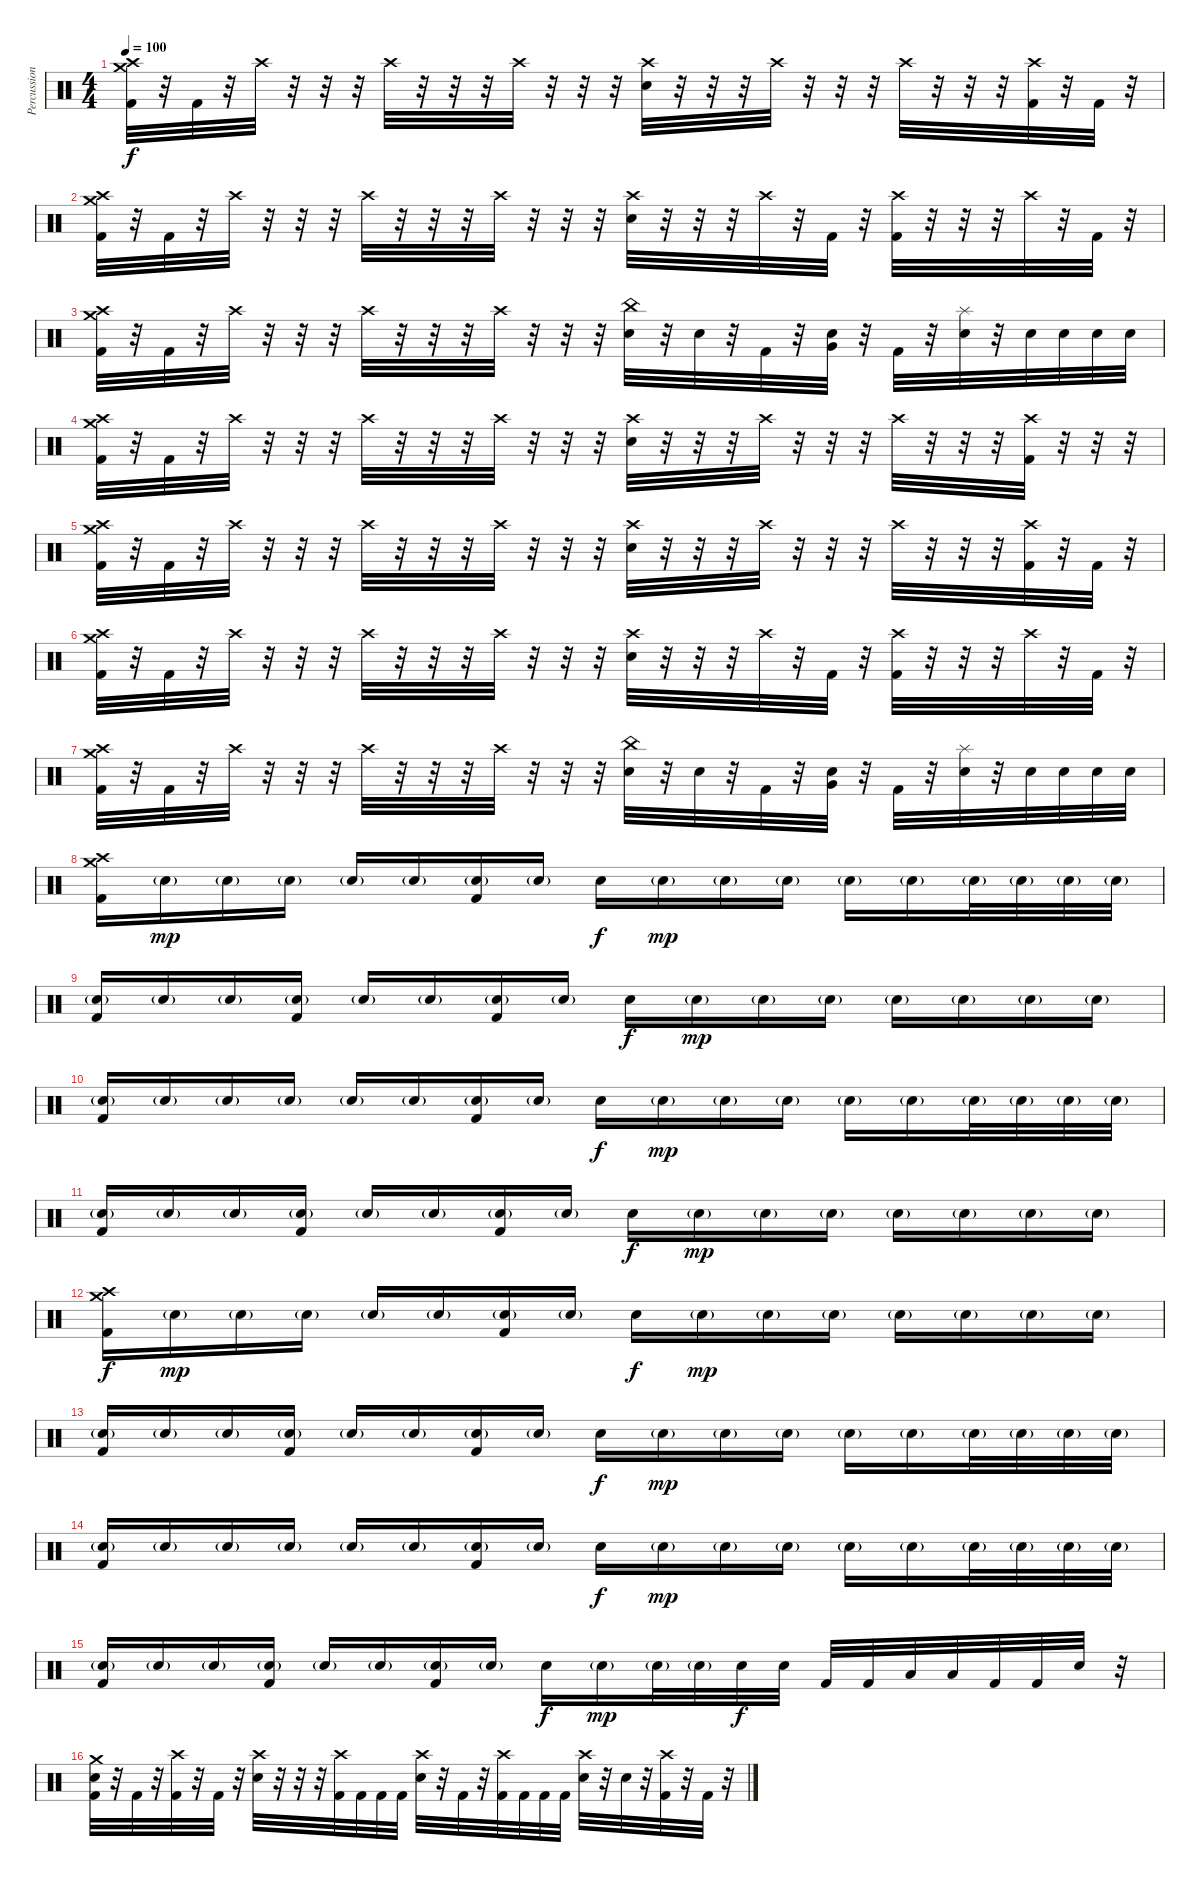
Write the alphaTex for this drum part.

\track ("Percussion" "Percussion") {instrument percussion}
\staff {score}
\articulation defaults
\ts (4 4)
\tempo 100
\clef neutral
\ks c
("Crash high (hit)" "Crash medium (hit)" "Kick (hit) 2").32{dy f} r.32 "Kick (hit) 2".32 r.32 "Crash high (hit)".32 r.32 r.32 r.32 "Crash high (hit)".32 r.32 r.32 r.32 "Crash high (hit)".32 r.32 r.32 r.32 ("Crash high (hit)" "Electric Snare (hit)").32 r.32 r.32 r.32 "Crash high (hit)".32 r.32 r.32 r.32 "Crash high (hit)".32 r.32 r.32 r.32 ("Crash high (hit)" "Kick (hit) 2").32 r.32 "Kick (hit) 2".32 r.32 |
("Crash high (hit)" "Crash medium (hit)" "Kick (hit) 2").32 r.32 "Kick (hit) 2".32 r.32 "Crash high (hit)".32 r.32 r.32 r.32 "Crash high (hit)".32 r.32 r.32 r.32 "Crash high (hit)".32 r.32 r.32 r.32 ("Crash high (hit)" "Electric Snare (hit)").32 r.32 r.32 r.32 "Crash high (hit)".32 r.32 "Kick (hit) 2".32 r.32 ("Crash high (hit)" "Kick (hit) 2").32 r.32 r.32 r.32 "Crash high (hit)".32 r.32 "Kick (hit) 2".32 r.32 |
("Crash high (hit)" "Crash medium (hit)" "Kick (hit) 2").32 r.32 "Kick (hit) 2".32 r.32 "Crash high (hit)".32 r.32 r.32 r.32 "Crash high (hit)".32 r.32 r.32 r.32 "Crash high (hit)".32 r.32 r.32 r.32 ("China (hit)" "Electric Snare (hit)").32 r.32 "Electric Snare (hit)".32 r.32 "Kick (hit) 2".32 r.32 ("Very Low Tom (hit)" "Electric Snare (hit)").32 r.32 "Kick (hit) 2".32 r.32 ("Splash (hit)" "Electric Snare (hit)").32 r.32 "Electric Snare (hit)".32 "Electric Snare (hit)".32 "Electric Snare (hit)".32 "Electric Snare (hit)".32 |
("Crash high (hit)" "Crash medium (hit)" "Kick (hit) 2").32 r.32 "Kick (hit) 2".32 r.32 "Crash high (hit)".32 r.32 r.32 r.32 "Crash high (hit)".32 r.32 r.32 r.32 "Crash high (hit)".32 r.32 r.32 r.32 ("Crash high (hit)" "Electric Snare (hit)").32 r.32 r.32 r.32 "Crash high (hit)".32 r.32 r.32 r.32 "Crash high (hit)".32 r.32 r.32 r.32 ("Crash high (hit)" "Kick (hit) 2").32 r.32 r.32 r.32 |
("Crash high (hit)" "Crash medium (hit)" "Kick (hit) 2").32 r.32 "Kick (hit) 2".32 r.32 "Crash high (hit)".32 r.32 r.32 r.32 "Crash high (hit)".32 r.32 r.32 r.32 "Crash high (hit)".32 r.32 r.32 r.32 ("Crash high (hit)" "Electric Snare (hit)").32 r.32 r.32 r.32 "Crash high (hit)".32 r.32 r.32 r.32 "Crash high (hit)".32 r.32 r.32 r.32 ("Crash high (hit)" "Kick (hit) 2").32 r.32 "Kick (hit) 2".32 r.32 |
("Crash high (hit)" "Crash medium (hit)" "Kick (hit) 2").32 r.32 "Kick (hit) 2".32 r.32 "Crash high (hit)".32 r.32 r.32 r.32 "Crash high (hit)".32 r.32 r.32 r.32 "Crash high (hit)".32 r.32 r.32 r.32 ("Crash high (hit)" "Electric Snare (hit)").32 r.32 r.32 r.32 "Crash high (hit)".32 r.32 "Kick (hit) 2".32 r.32 ("Crash high (hit)" "Kick (hit) 2").32 r.32 r.32 r.32 "Crash high (hit)".32 r.32 "Kick (hit) 2".32 r.32 |
("Crash high (hit)" "Crash medium (hit)" "Kick (hit) 2").32 r.32 "Kick (hit) 2".32 r.32 "Crash high (hit)".32 r.32 r.32 r.32 "Crash high (hit)".32 r.32 r.32 r.32 "Crash high (hit)".32 r.32 r.32 r.32 ("China (hit)" "Electric Snare (hit)").32 r.32 "Electric Snare (hit)".32 r.32 "Kick (hit) 2".32 r.32 ("Very Low Tom (hit)" "Electric Snare (hit)").32 r.32 "Kick (hit) 2".32 r.32 ("Splash (hit)" "Electric Snare (hit)").32 r.32 "Electric Snare (hit)".32 "Electric Snare (hit)".32 "Electric Snare (hit)".32 "Electric Snare (hit)".32 |
("Crash high (hit)" "Crash medium (hit)" "Kick (hit) 2").16 "Electric Snare (hit)"{g}.16{dy mp} "Electric Snare (hit)"{g}.16 "Electric Snare (hit)"{g}.16 "Electric Snare (hit)"{g}.16 "Electric Snare (hit)"{g}.16 ("Electric Snare (hit)"{g} "Kick (hit) 2").16 "Electric Snare (hit)"{g}.16 "Electric Snare (hit)".16{dy f} "Electric Snare (hit)"{g}.16{dy mp} "Electric Snare (hit)"{g}.16 "Electric Snare (hit)"{g}.16 "Electric Snare (hit)"{g}.16 "Electric Snare (hit)"{g}.16 "Electric Snare (hit)"{g}.32 "Electric Snare (hit)"{g}.32 "Electric Snare (hit)"{g}.32 "Electric Snare (hit)"{g}.32 |
("Electric Snare (hit)"{g} "Kick (hit) 2").16 "Electric Snare (hit)"{g}.16 "Electric Snare (hit)"{g}.16 ("Electric Snare (hit)"{g} "Kick (hit) 2").16 "Electric Snare (hit)"{g}.16 "Electric Snare (hit)"{g}.16 ("Electric Snare (hit)"{g} "Kick (hit) 2").16 "Electric Snare (hit)"{g}.16 "Electric Snare (hit)".16{dy f} "Electric Snare (hit)"{g}.16{dy mp} "Electric Snare (hit)"{g}.16 "Electric Snare (hit)"{g}.16 "Electric Snare (hit)"{g}.16 "Electric Snare (hit)"{g}.16 "Electric Snare (hit)"{g}.16 "Electric Snare (hit)"{g}.16 |
("Electric Snare (hit)"{g} "Kick (hit) 2").16 "Electric Snare (hit)"{g}.16 "Electric Snare (hit)"{g}.16 "Electric Snare (hit)"{g}.16 "Electric Snare (hit)"{g}.16 "Electric Snare (hit)"{g}.16 ("Electric Snare (hit)"{g} "Kick (hit) 2").16 "Electric Snare (hit)"{g}.16 "Electric Snare (hit)".16{dy f} "Electric Snare (hit)"{g}.16{dy mp} "Electric Snare (hit)"{g}.16 "Electric Snare (hit)"{g}.16 "Electric Snare (hit)"{g}.16 "Electric Snare (hit)"{g}.16 "Electric Snare (hit)"{g}.32 "Electric Snare (hit)"{g}.32 "Electric Snare (hit)"{g}.32 "Electric Snare (hit)"{g}.32 |
("Electric Snare (hit)"{g} "Kick (hit) 2").16 "Electric Snare (hit)"{g}.16 "Electric Snare (hit)"{g}.16 ("Electric Snare (hit)"{g} "Kick (hit) 2").16 "Electric Snare (hit)"{g}.16 "Electric Snare (hit)"{g}.16 ("Electric Snare (hit)"{g} "Kick (hit) 2").16 "Electric Snare (hit)"{g}.16 "Electric Snare (hit)".16{dy f} "Electric Snare (hit)"{g}.16{dy mp} "Electric Snare (hit)"{g}.16 "Electric Snare (hit)"{g}.16 "Electric Snare (hit)"{g}.16 "Electric Snare (hit)"{g}.16 "Electric Snare (hit)"{g}.16 "Electric Snare (hit)"{g}.16 |
("Crash high (hit)" "Crash medium (hit)" "Kick (hit) 2").16{dy f} "Electric Snare (hit)"{g}.16{dy mp} "Electric Snare (hit)"{g}.16 "Electric Snare (hit)"{g}.16 "Electric Snare (hit)"{g}.16 "Electric Snare (hit)"{g}.16 ("Electric Snare (hit)"{g} "Kick (hit) 2").16 "Electric Snare (hit)"{g}.16 "Electric Snare (hit)".16{dy f} "Electric Snare (hit)"{g}.16{dy mp} "Electric Snare (hit)"{g}.16 "Electric Snare (hit)"{g}.16 "Electric Snare (hit)"{g}.16 "Electric Snare (hit)"{g}.16 "Electric Snare (hit)"{g}.16 "Electric Snare (hit)"{g}.16 |
("Electric Snare (hit)"{g} "Kick (hit) 2").16 "Electric Snare (hit)"{g}.16 "Electric Snare (hit)"{g}.16 ("Electric Snare (hit)"{g} "Kick (hit) 2").16 "Electric Snare (hit)"{g}.16 "Electric Snare (hit)"{g}.16 ("Electric Snare (hit)"{g} "Kick (hit) 2").16 "Electric Snare (hit)"{g}.16 "Electric Snare (hit)".16{dy f} "Electric Snare (hit)"{g}.16{dy mp} "Electric Snare (hit)"{g}.16 "Electric Snare (hit)"{g}.16 "Electric Snare (hit)"{g}.16 "Electric Snare (hit)"{g}.16 "Electric Snare (hit)"{g}.32 "Electric Snare (hit)"{g}.32 "Electric Snare (hit)"{g}.32 "Electric Snare (hit)"{g}.32 |
("Electric Snare (hit)"{g} "Kick (hit) 2").16 "Electric Snare (hit)"{g}.16 "Electric Snare (hit)"{g}.16 "Electric Snare (hit)"{g}.16 "Electric Snare (hit)"{g}.16 "Electric Snare (hit)"{g}.16 ("Electric Snare (hit)"{g} "Kick (hit) 2").16 "Electric Snare (hit)"{g}.16 "Electric Snare (hit)".16{dy f} "Electric Snare (hit)"{g}.16{dy mp} "Electric Snare (hit)"{g}.16 "Electric Snare (hit)"{g}.16 "Electric Snare (hit)"{g}.16 "Electric Snare (hit)"{g}.16 "Electric Snare (hit)"{g}.32 "Electric Snare (hit)"{g}.32 "Electric Snare (hit)"{g}.32 "Electric Snare (hit)"{g}.32 |
("Electric Snare (hit)"{g} "Kick (hit) 2").16 "Electric Snare (hit)"{g}.16 "Electric Snare (hit)"{g}.16 ("Electric Snare (hit)"{g} "Kick (hit) 2").16 "Electric Snare (hit)"{g}.16 "Electric Snare (hit)"{g}.16 ("Electric Snare (hit)"{g} "Kick (hit) 2").16 "Electric Snare (hit)"{g}.16 "Electric Snare (hit)".16{dy f} "Electric Snare (hit)"{g}.16{dy mp} "Electric Snare (hit)"{g}.32 "Electric Snare (hit)"{g}.32 "Electric Snare (hit)".32{dy f} "Electric Snare (hit)".32 "Kick (hit) 2".32 "Kick (hit) 2".32 "Low Tom (hit)".32 "Low Tom (hit)".32 "Kick (hit) 2".32 "Kick (hit) 2".32 "Electric Snare (hit)".32 r.32 |
("Crash medium (hit)" "Electric Snare (hit)" "Kick (hit) 2").32 r.32 "Kick (hit) 2".32 r.32 ("Crash high (hit)" "Kick (hit) 2").32 r.32 "Kick (hit) 2".32 r.32 ("Crash high (hit)" "Electric Snare (hit)").32 r.32 r.32 r.32 ("Crash high (hit)" "Kick (hit) 2").32 "Kick (hit) 2".32 "Kick (hit) 2".32 "Kick (hit) 2".32 ("Crash high (hit)" "Electric Snare (hit)").32 r.32 "Kick (hit) 2".32 r.32 ("Crash high (hit)" "Kick (hit) 2").32 "Kick (hit) 2".32 "Kick (hit) 2".32 "Kick (hit) 2".32 ("Crash high (hit)" "Electric Snare (hit)").32 r.32 "Electric Snare (hit)".32 r.32 ("Crash high (hit)" "Kick (hit) 2").32 r.32 "Kick (hit) 2".32 r.32
